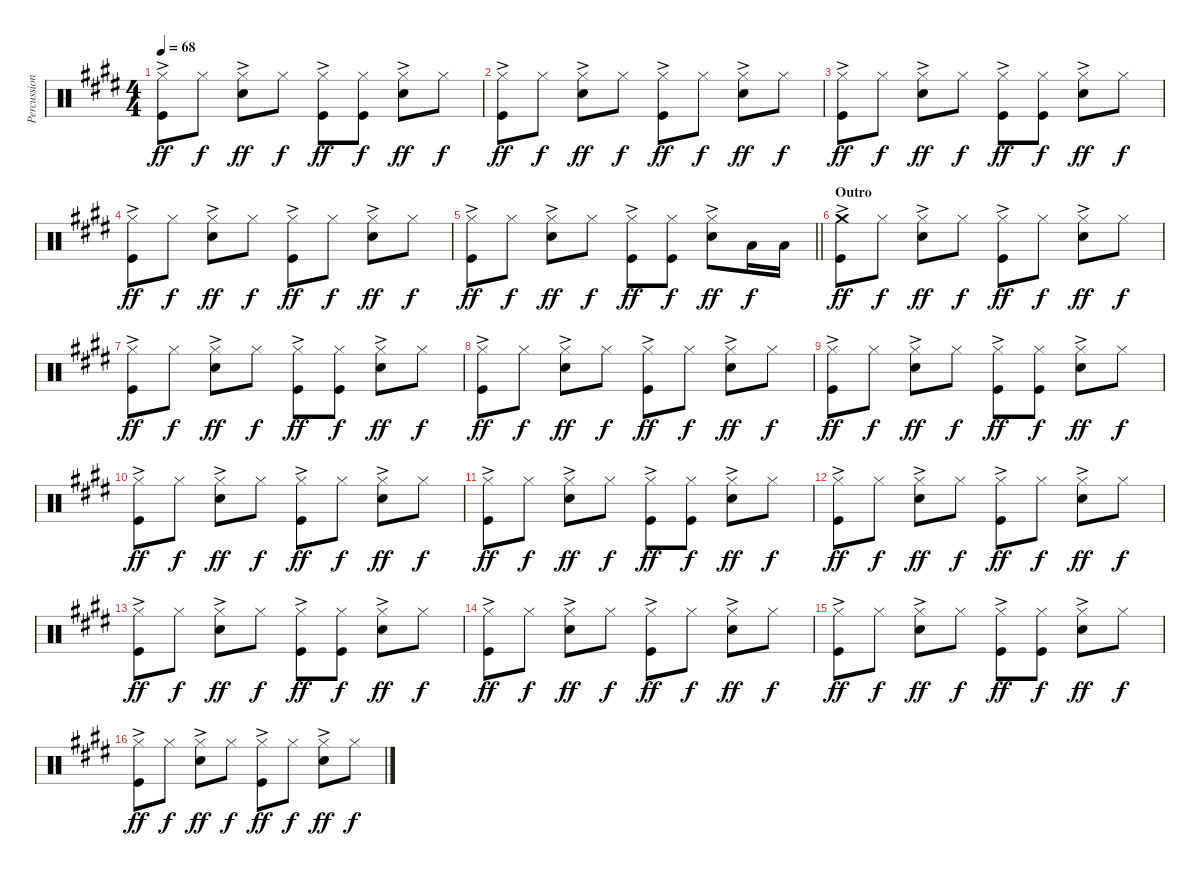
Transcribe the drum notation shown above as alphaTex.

\track ("Percussion" "Percussion") {instrument percussion}
\staff {score}
\articulation defaults
\ts (4 4)
\tempo 68
\clef neutral
\ks e
("Hi-Hat (closed)"{ac} "Kick (hit)").8{dy ff} "Hi-Hat (closed)".8{dy f} ("Hi-Hat (closed)"{ac} "Snare (hit) 2").8{dy ff} "Hi-Hat (closed)".8{dy f} ("Hi-Hat (closed)"{ac} "Kick (hit)").8{dy ff} ("Hi-Hat (closed)" "Kick (hit)").8{dy f} ("Hi-Hat (closed)"{ac} "Snare (hit) 2").8{dy ff} "Hi-Hat (closed)".8{dy f} |
("Hi-Hat (closed)"{ac} "Kick (hit)").8{dy ff} "Hi-Hat (closed)".8{dy f} ("Hi-Hat (closed)"{ac} "Snare (hit) 2").8{dy ff} "Hi-Hat (closed)".8{dy f} ("Hi-Hat (closed)"{ac} "Kick (hit)").8{dy ff} "Hi-Hat (closed)".8{dy f} ("Hi-Hat (closed)"{ac} "Snare (hit) 2").8{dy ff} "Hi-Hat (closed)".8{dy f} |
("Hi-Hat (closed)"{ac} "Kick (hit)").8{dy ff} "Hi-Hat (closed)".8{dy f} ("Hi-Hat (closed)"{ac} "Snare (hit) 2").8{dy ff} "Hi-Hat (closed)".8{dy f} ("Hi-Hat (closed)"{ac} "Kick (hit)").8{dy ff} ("Hi-Hat (closed)" "Kick (hit)").8{dy f} ("Hi-Hat (closed)"{ac} "Snare (hit) 2").8{dy ff} "Hi-Hat (closed)".8{dy f} |
("Hi-Hat (closed)"{ac} "Kick (hit)").8{dy ff} "Hi-Hat (closed)".8{dy f} ("Hi-Hat (closed)"{ac} "Snare (hit) 2").8{dy ff} "Hi-Hat (closed)".8{dy f} ("Hi-Hat (closed)"{ac} "Kick (hit)").8{dy ff} "Hi-Hat (closed)".8{dy f} ("Hi-Hat (closed)"{ac} "Snare (hit) 2").8{dy ff} "Hi-Hat (closed)".8{dy f} |
\barLineRight lightlight
("Hi-Hat (closed)"{ac} "Kick (hit)").8{dy ff} "Hi-Hat (closed)".8{dy f} ("Hi-Hat (closed)"{ac} "Snare (hit) 2").8{dy ff} "Hi-Hat (closed)".8{dy f} ("Hi-Hat (closed)"{ac} "Kick (hit)").8{dy ff} ("Hi-Hat (closed)" "Kick (hit)").8{dy f} ("Hi-Hat (closed)"{ac} "Snare (hit) 2").8{dy ff} "Low Floor Tom (hit)".16{dy f} "Low Floor Tom (hit)".16 |
\section ("" "Outro")
("Crash medium (hit)"{ac} "Kick (hit)").8{dy ff} "Hi-Hat (closed)".8{dy f} ("Hi-Hat (closed)"{ac} "Snare (hit) 2").8{dy ff} "Hi-Hat (closed)".8{dy f} ("Hi-Hat (closed)"{ac} "Kick (hit)").8{dy ff} "Hi-Hat (closed)".8{dy f} ("Hi-Hat (closed)"{ac} "Snare (hit) 2").8{dy ff} "Hi-Hat (closed)".8{dy f} |
("Hi-Hat (closed)"{ac} "Kick (hit)").8{dy ff} "Hi-Hat (closed)".8{dy f} ("Hi-Hat (closed)"{ac} "Snare (hit) 2").8{dy ff} "Hi-Hat (closed)".8{dy f} ("Hi-Hat (closed)"{ac} "Kick (hit)").8{dy ff} ("Hi-Hat (closed)" "Kick (hit)").8{dy f} ("Hi-Hat (closed)"{ac} "Snare (hit) 2").8{dy ff} "Hi-Hat (closed)".8{dy f} |
("Hi-Hat (closed)"{ac} "Kick (hit)").8{dy ff} "Hi-Hat (closed)".8{dy f} ("Hi-Hat (closed)"{ac} "Snare (hit) 2").8{dy ff} "Hi-Hat (closed)".8{dy f} ("Hi-Hat (closed)"{ac} "Kick (hit)").8{dy ff} "Hi-Hat (closed)".8{dy f} ("Hi-Hat (closed)"{ac} "Snare (hit) 2").8{dy ff} "Hi-Hat (closed)".8{dy f} |
("Hi-Hat (closed)"{ac} "Kick (hit)").8{dy ff} "Hi-Hat (closed)".8{dy f} ("Hi-Hat (closed)"{ac} "Snare (hit) 2").8{dy ff} "Hi-Hat (closed)".8{dy f} ("Hi-Hat (closed)"{ac} "Kick (hit)").8{dy ff} ("Hi-Hat (closed)" "Kick (hit)").8{dy f} ("Hi-Hat (closed)"{ac} "Snare (hit) 2").8{dy ff} "Hi-Hat (closed)".8{dy f} |
("Hi-Hat (closed)"{ac} "Kick (hit)").8{dy ff} "Hi-Hat (closed)".8{dy f} ("Hi-Hat (closed)"{ac} "Snare (hit) 2").8{dy ff} "Hi-Hat (closed)".8{dy f} ("Hi-Hat (closed)"{ac} "Kick (hit)").8{dy ff} "Hi-Hat (closed)".8{dy f} ("Hi-Hat (closed)"{ac} "Snare (hit) 2").8{dy ff} "Hi-Hat (closed)".8{dy f} |
("Hi-Hat (closed)"{ac} "Kick (hit)").8{dy ff} "Hi-Hat (closed)".8{dy f} ("Hi-Hat (closed)"{ac} "Snare (hit) 2").8{dy ff} "Hi-Hat (closed)".8{dy f} ("Hi-Hat (closed)"{ac} "Kick (hit)").8{dy ff} ("Hi-Hat (closed)" "Kick (hit)").8{dy f} ("Hi-Hat (closed)"{ac} "Snare (hit) 2").8{dy ff} "Hi-Hat (closed)".8{dy f} |
("Hi-Hat (closed)"{ac} "Kick (hit)").8{dy ff} "Hi-Hat (closed)".8{dy f} ("Hi-Hat (closed)"{ac} "Snare (hit) 2").8{dy ff} "Hi-Hat (closed)".8{dy f} ("Hi-Hat (closed)"{ac} "Kick (hit)").8{dy ff} "Hi-Hat (closed)".8{dy f} ("Hi-Hat (closed)"{ac} "Snare (hit) 2").8{dy ff} "Hi-Hat (closed)".8{dy f} |
("Hi-Hat (closed)"{ac} "Kick (hit)").8{dy ff} "Hi-Hat (closed)".8{dy f} ("Hi-Hat (closed)"{ac} "Snare (hit) 2").8{dy ff} "Hi-Hat (closed)".8{dy f} ("Hi-Hat (closed)"{ac} "Kick (hit)").8{dy ff} ("Hi-Hat (closed)" "Kick (hit)").8{dy f} ("Hi-Hat (closed)"{ac} "Snare (hit) 2").8{dy ff} "Hi-Hat (closed)".8{dy f} |
("Hi-Hat (closed)"{ac} "Kick (hit)").8{dy ff} "Hi-Hat (closed)".8{dy f} ("Hi-Hat (closed)"{ac} "Snare (hit) 2").8{dy ff} "Hi-Hat (closed)".8{dy f} ("Hi-Hat (closed)"{ac} "Kick (hit)").8{dy ff} "Hi-Hat (closed)".8{dy f} ("Hi-Hat (closed)"{ac} "Snare (hit) 2").8{dy ff} "Hi-Hat (closed)".8{dy f} |
("Hi-Hat (closed)"{ac} "Kick (hit)").8{dy ff} "Hi-Hat (closed)".8{dy f} ("Hi-Hat (closed)"{ac} "Snare (hit) 2").8{dy ff} "Hi-Hat (closed)".8{dy f} ("Hi-Hat (closed)"{ac} "Kick (hit)").8{dy ff} ("Hi-Hat (closed)" "Kick (hit)").8{dy f} ("Hi-Hat (closed)"{ac} "Snare (hit) 2").8{dy ff} "Hi-Hat (closed)".8{dy f} |
("Hi-Hat (closed)"{ac} "Kick (hit)").8{dy ff} "Hi-Hat (closed)".8{dy f} ("Hi-Hat (closed)"{ac} "Snare (hit) 2").8{dy ff} "Hi-Hat (closed)".8{dy f} ("Hi-Hat (closed)"{ac} "Kick (hit)").8{dy ff} "Hi-Hat (closed)".8{dy f} ("Hi-Hat (closed)"{ac} "Snare (hit) 2").8{dy ff} "Hi-Hat (closed)".8{dy f}
